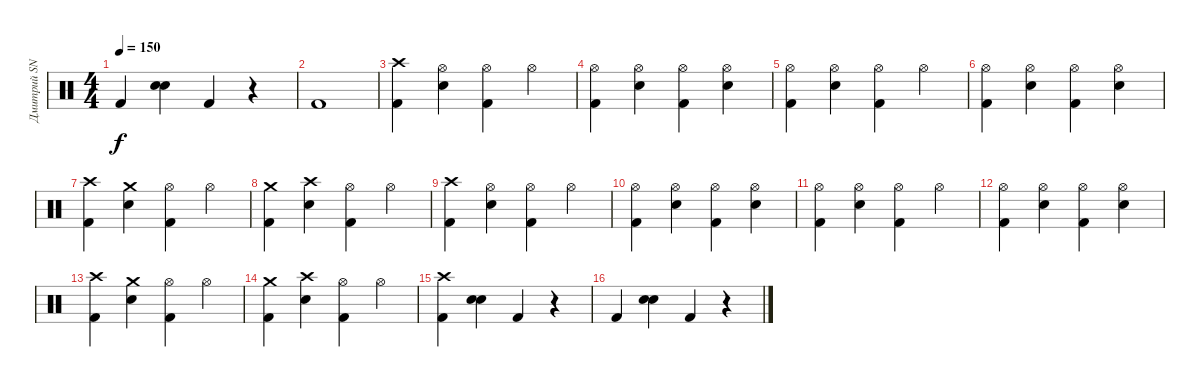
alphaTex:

\track ("Дмитрий SNAKE Хакимов" "Дмитрий SN") {instrument percussion}
\staff {score}
\articulation defaults
\ts (4 4)
\tempo 150
\clef neutral
\ks c "Kick (hit) 2".4{dy f}
("Snare (hit) 2" "Hand Clap (hit)").4 "Kick (hit) 2".4 r.4 |
"Kick (hit) 2".1 |
("Crash high (hit)" "Kick (hit) 2").4 ("Hi-Hat (open)" "Snare (hit) 2").4 ("Hi-Hat (open)" "Kick (hit) 2").4 "Hi-Hat (open)".4 |
("Hi-Hat (open)" "Kick (hit) 2").4 ("Hi-Hat (open)" "Snare (hit) 2").4 ("Hi-Hat (open)" "Kick (hit) 2").4 ("Hi-Hat (open)" "Snare (hit) 2").4 |
("Hi-Hat (open)" "Kick (hit) 2").4 ("Hi-Hat (open)" "Snare (hit) 2").4 ("Hi-Hat (open)" "Kick (hit) 2").4 "Hi-Hat (open)".4 |
("Hi-Hat (open)" "Kick (hit) 2").4 ("Hi-Hat (open)" "Snare (hit) 2").4 ("Hi-Hat (open)" "Kick (hit) 2").4 ("Hi-Hat (open)" "Snare (hit) 2").4 |
("Crash high (hit)" "Kick (hit) 2").4 ("Crash medium (hit)" "Snare (hit) 2").4 ("Hi-Hat (open)" "Kick (hit) 2").4 "Hi-Hat (open)".4 |
("Crash medium (hit)" "Kick (hit) 2").4 ("Crash high (hit)" "Snare (hit) 2").4 ("Hi-Hat (open)" "Kick (hit) 2").4 "Hi-Hat (open)".4 |
("Crash high (hit)" "Kick (hit) 2").4 ("Hi-Hat (open)" "Snare (hit) 2").4 ("Hi-Hat (open)" "Kick (hit) 2").4 "Hi-Hat (open)".4 |
("Hi-Hat (open)" "Kick (hit) 2").4 ("Hi-Hat (open)" "Snare (hit) 2").4 ("Hi-Hat (open)" "Kick (hit) 2").4 ("Hi-Hat (open)" "Snare (hit) 2").4 |
("Hi-Hat (open)" "Kick (hit) 2").4 ("Hi-Hat (open)" "Snare (hit) 2").4 ("Hi-Hat (open)" "Kick (hit) 2").4 "Hi-Hat (open)".4 |
("Hi-Hat (open)" "Kick (hit) 2").4 ("Hi-Hat (open)" "Snare (hit) 2").4 ("Hi-Hat (open)" "Kick (hit) 2").4 ("Hi-Hat (open)" "Snare (hit) 2").4 |
("Crash high (hit)" "Kick (hit) 2").4 ("Crash medium (hit)" "Snare (hit) 2").4 ("Hi-Hat (open)" "Kick (hit) 2").4 "Hi-Hat (open)".4 |
("Crash medium (hit)" "Kick (hit) 2").4 ("Crash high (hit)" "Snare (hit) 2").4 ("Hi-Hat (open)" "Kick (hit) 2").4 "Hi-Hat (open)".4 |
("Crash high (hit)" "Kick (hit) 2").4 ("Snare (hit) 2" "Hand Clap (hit)").4 "Kick (hit) 2".4 r.4 |
"Kick (hit) 2".4 ("Snare (hit) 2" "Hand Clap (hit)").4 "Kick (hit) 2".4 r.4
